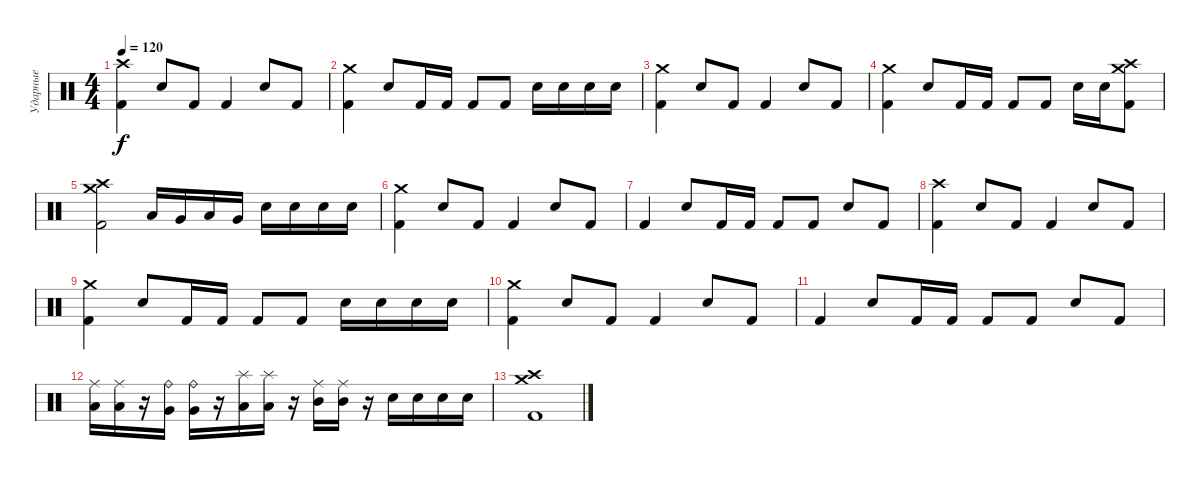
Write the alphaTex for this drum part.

\track ("Ударные" "Ударные") {instrument percussion}
\staff {score}
\articulation defaults
\ts (4 4)
\tempo 120
\clef neutral
\ks c
("Kick (hit) 2" "Crash high (hit)").4{dy f} "Snare (hit) 2".8 "Kick (hit) 2".8 "Kick (hit) 2".4 "Snare (hit) 2".8 "Kick (hit) 2".8 |
("Kick (hit) 2" "Crash medium (hit)").4 "Snare (hit) 2".8 "Kick (hit) 2".16 "Kick (hit) 2".16 "Kick (hit) 2".8 "Kick (hit) 2".8 "Snare (hit) 2".16 "Snare (hit) 2".16 "Snare (hit) 2".16 "Snare (hit) 2".16 |
("Kick (hit) 2" "Crash medium (hit)").4 "Snare (hit) 2".8 "Kick (hit) 2".8 "Kick (hit) 2".4 "Snare (hit) 2".8 "Kick (hit) 2".8 |
("Kick (hit) 2" "Crash medium (hit)").4 "Snare (hit) 2".8 "Kick (hit) 2".16 "Kick (hit) 2".16 "Kick (hit) 2".8 "Kick (hit) 2".8 "Snare (hit) 2".16 "Snare (hit) 2".16 ("Kick (hit) 2" "Crash medium (hit)" "Crash high (hit)").8 |
("Kick (hit) 2" "Crash medium (hit)" "Crash high (hit)").2 "Low Floor Tom (hit)".16 "Very Low Tom (hit)".16 "Low Floor Tom (hit)".16 "Very Low Tom (hit)".16 "Snare (hit) 2".16 "Snare (hit) 2".16 "Snare (hit) 2".16 "Snare (hit) 2".16 |
("Kick (hit) 2" "Crash medium (hit)").4 "Snare (hit) 2".8 "Kick (hit) 2".8 "Kick (hit) 2".4 "Snare (hit) 2".8 "Kick (hit) 2".8 |
"Kick (hit) 2".4 "Snare (hit) 2".8 "Kick (hit) 2".16 "Kick (hit) 2".16 "Kick (hit) 2".8 "Kick (hit) 2".8 "Snare (hit) 2".8 "Kick (hit) 2".8 |
("Kick (hit) 2" "Crash high (hit)").4 "Snare (hit) 2".8 "Kick (hit) 2".8 "Kick (hit) 2".4 "Snare (hit) 2".8 "Kick (hit) 2".8 |
("Kick (hit) 2" "Crash medium (hit)").4 "Snare (hit) 2".8 "Kick (hit) 2".16 "Kick (hit) 2".16 "Kick (hit) 2".8 "Kick (hit) 2".8 "Snare (hit) 2".16 "Snare (hit) 2".16 "Snare (hit) 2".16 "Snare (hit) 2".16 |
("Kick (hit) 2" "Crash medium (hit)").4 "Snare (hit) 2".8 "Kick (hit) 2".8 "Kick (hit) 2".4 "Snare (hit) 2".8 "Kick (hit) 2".8 |
"Kick (hit) 2".4 "Snare (hit) 2".8 "Kick (hit) 2".16 "Kick (hit) 2".16 "Kick (hit) 2".8 "Kick (hit) 2".8 "Snare (hit) 2".8 "Kick (hit) 2".8 |
("Low Floor Tom (hit)" "Ride (middle)").16 ("Low Floor Tom (hit)" "Ride (middle)").16 r.16 ("Very Low Tom (hit)" "Ride (bell)").16 ("Very Low Tom (hit)" "Ride (bell)").16 r.16 ("Low Tom (hit)" "Splash (hit)").16 ("Low Tom (hit)" "Splash (hit)").16 r.16 ("Mid Tom (hit)" "Ride (middle)").16 ("Mid Tom (hit)" "Ride (middle)").16 r.16 "Snare (hit) 2".16 "Snare (hit) 2".16 "Snare (hit) 2".16 "Snare (hit) 2".16 |
("Kick (hit) 2" "Crash medium (hit)" "Crash high (hit)").1
